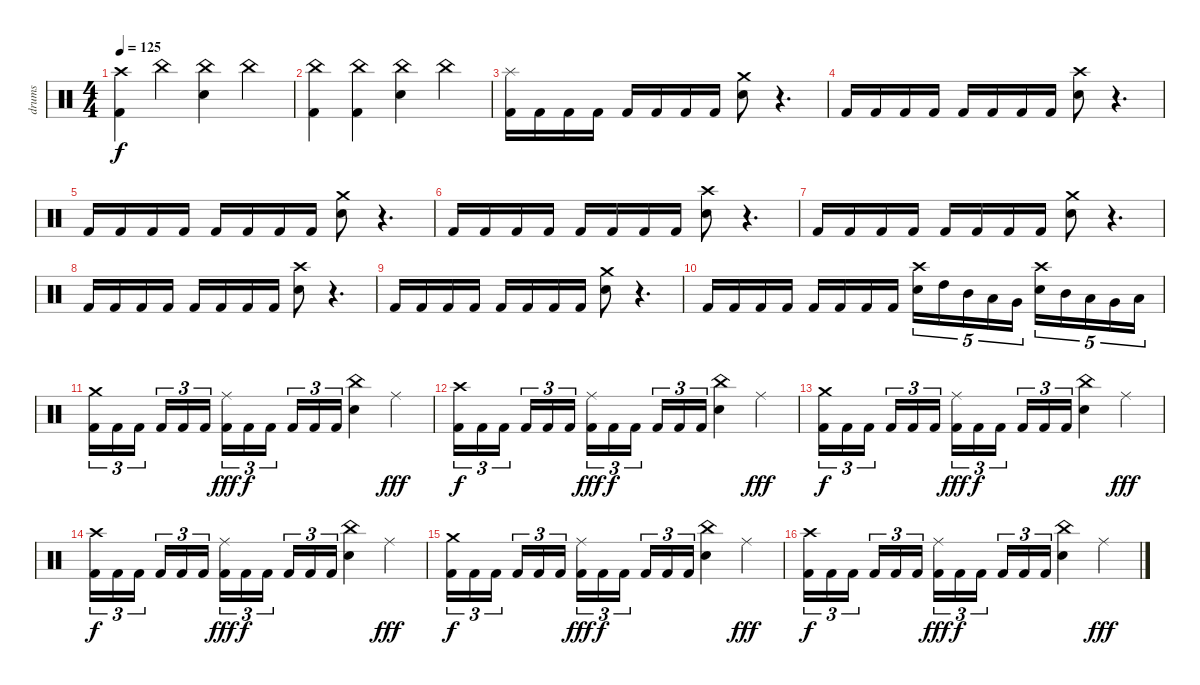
\track ("drums" "drums") {instrument percussion}
\staff {score}
\articulation defaults
\ts (4 4)
\tempo 125
\clef neutral
\ks c
("Kick (hit) 2" "Crash high (hit)").4{dy f} "China (hit)".4 ("Snare (hit) 2" "China (hit)").4 "China (hit)".4 |
("Kick (hit) 2" "China (hit)").4 ("Kick (hit) 2" "China (hit)").4 ("Snare (hit) 2" "China (hit)").4 "China (hit)".4 |
("Splash (hit)" "Kick (hit) 2").16 "Kick (hit) 2".16 "Kick (hit) 2".16 "Kick (hit) 2".16 "Kick (hit) 2".16 "Kick (hit) 2".16 "Kick (hit) 2".16 "Kick (hit) 2".16 ("Crash medium (hit)" "Snare (hit) 2").8 r.4{d} |
"Kick (hit) 2".16 "Kick (hit) 2".16 "Kick (hit) 2".16 "Kick (hit) 2".16 "Kick (hit) 2".16 "Kick (hit) 2".16 "Kick (hit) 2".16 "Kick (hit) 2".16 ("Crash high (hit)" "Snare (hit) 2").8 r.4{d} |
"Kick (hit) 2".16 "Kick (hit) 2".16 "Kick (hit) 2".16 "Kick (hit) 2".16 "Kick (hit) 2".16 "Kick (hit) 2".16 "Kick (hit) 2".16 "Kick (hit) 2".16 ("Crash medium (hit)" "Snare (hit) 2").8 r.4{d} |
"Kick (hit) 2".16 "Kick (hit) 2".16 "Kick (hit) 2".16 "Kick (hit) 2".16 "Kick (hit) 2".16 "Kick (hit) 2".16 "Kick (hit) 2".16 "Kick (hit) 2".16 ("Crash high (hit)" "Snare (hit) 2").8 r.4{d} |
"Kick (hit) 2".16 "Kick (hit) 2".16 "Kick (hit) 2".16 "Kick (hit) 2".16 "Kick (hit) 2".16 "Kick (hit) 2".16 "Kick (hit) 2".16 "Kick (hit) 2".16 ("Crash medium (hit)" "Snare (hit) 2").8 r.4{d} |
"Kick (hit) 2".16 "Kick (hit) 2".16 "Kick (hit) 2".16 "Kick (hit) 2".16 "Kick (hit) 2".16 "Kick (hit) 2".16 "Kick (hit) 2".16 "Kick (hit) 2".16 ("Crash high (hit)" "Snare (hit) 2").8 r.4{d} |
"Kick (hit) 2".16 "Kick (hit) 2".16 "Kick (hit) 2".16 "Kick (hit) 2".16 "Kick (hit) 2".16 "Kick (hit) 2".16 "Kick (hit) 2".16 "Kick (hit) 2".16 ("Crash medium (hit)" "Snare (hit) 2").8 r.4{d} |
"Kick (hit) 2".16 "Kick (hit) 2".16 "Kick (hit) 2".16 "Kick (hit) 2".16 "Kick (hit) 2".16 "Kick (hit) 2".16 "Kick (hit) 2".16 "Kick (hit) 2".16 ("Crash high (hit)" "Snare (hit) 2").16{tu (5 4)} "High Tom (hit)".16{tu (5 4)} "Mid Tom (hit)".16{tu (5 4)} "Low Tom (hit)".16{tu (5 4)} "Very Low Tom (hit)".16{tu (5 4)} ("Crash high (hit)" "Snare (hit) 2").16{tu (5 4)} "Mid Tom (hit)".16{tu (5 4)} "Low Tom (hit)".16{tu (5 4)} "Very Low Tom (hit)".16{tu (5 4)} "Low Floor Tom (hit)".16{tu (5 4)} |
("Kick (hit) 2" "Crash medium (hit)").16{tu (3 2)} "Kick (hit) 2".16{tu (3 2)} "Kick (hit) 2".16{tu (3 2)} "Kick (hit) 2".16{tu (3 2)} "Kick (hit) 2".16{tu (3 2)} "Kick (hit) 2".16{tu (3 2)} ("Kick (hit) 2" "Ride (middle)").16{tu (3 2) dy fff} "Kick (hit) 2".16{tu (3 2) dy f} "Kick (hit) 2".16{tu (3 2)} "Kick (hit) 2".16{tu (3 2)} "Kick (hit) 2".16{tu (3 2)} "Kick (hit) 2".16{tu (3 2)} ("Snare (hit) 2" "China (hit)").4 "Ride (middle)".4{dy fff} |
("Kick (hit) 2" "Crash high (hit)").16{tu (3 2) dy f} "Kick (hit) 2".16{tu (3 2)} "Kick (hit) 2".16{tu (3 2)} "Kick (hit) 2".16{tu (3 2)} "Kick (hit) 2".16{tu (3 2)} "Kick (hit) 2".16{tu (3 2)} ("Kick (hit) 2" "Ride (middle)").16{tu (3 2) dy fff} "Kick (hit) 2".16{tu (3 2) dy f} "Kick (hit) 2".16{tu (3 2)} "Kick (hit) 2".16{tu (3 2)} "Kick (hit) 2".16{tu (3 2)} "Kick (hit) 2".16{tu (3 2)} ("Snare (hit) 2" "China (hit)").4 "Ride (middle)".4{dy fff} |
("Kick (hit) 2" "Crash medium (hit)").16{tu (3 2) dy f} "Kick (hit) 2".16{tu (3 2)} "Kick (hit) 2".16{tu (3 2)} "Kick (hit) 2".16{tu (3 2)} "Kick (hit) 2".16{tu (3 2)} "Kick (hit) 2".16{tu (3 2)} ("Kick (hit) 2" "Ride (middle)").16{tu (3 2) dy fff} "Kick (hit) 2".16{tu (3 2) dy f} "Kick (hit) 2".16{tu (3 2)} "Kick (hit) 2".16{tu (3 2)} "Kick (hit) 2".16{tu (3 2)} "Kick (hit) 2".16{tu (3 2)} ("Snare (hit) 2" "China (hit)").4 "Ride (middle)".4{dy fff} |
("Kick (hit) 2" "Crash high (hit)").16{tu (3 2) dy f} "Kick (hit) 2".16{tu (3 2)} "Kick (hit) 2".16{tu (3 2)} "Kick (hit) 2".16{tu (3 2)} "Kick (hit) 2".16{tu (3 2)} "Kick (hit) 2".16{tu (3 2)} ("Kick (hit) 2" "Ride (middle)").16{tu (3 2) dy fff} "Kick (hit) 2".16{tu (3 2) dy f} "Kick (hit) 2".16{tu (3 2)} "Kick (hit) 2".16{tu (3 2)} "Kick (hit) 2".16{tu (3 2)} "Kick (hit) 2".16{tu (3 2)} ("Snare (hit) 2" "China (hit)").4 "Ride (middle)".4{dy fff} |
("Kick (hit) 2" "Crash medium (hit)").16{tu (3 2) dy f} "Kick (hit) 2".16{tu (3 2)} "Kick (hit) 2".16{tu (3 2)} "Kick (hit) 2".16{tu (3 2)} "Kick (hit) 2".16{tu (3 2)} "Kick (hit) 2".16{tu (3 2)} ("Kick (hit) 2" "Ride (middle)").16{tu (3 2) dy fff} "Kick (hit) 2".16{tu (3 2) dy f} "Kick (hit) 2".16{tu (3 2)} "Kick (hit) 2".16{tu (3 2)} "Kick (hit) 2".16{tu (3 2)} "Kick (hit) 2".16{tu (3 2)} ("Snare (hit) 2" "China (hit)").4 "Ride (middle)".4{dy fff} |
("Kick (hit) 2" "Crash high (hit)").16{tu (3 2) dy f} "Kick (hit) 2".16{tu (3 2)} "Kick (hit) 2".16{tu (3 2)} "Kick (hit) 2".16{tu (3 2)} "Kick (hit) 2".16{tu (3 2)} "Kick (hit) 2".16{tu (3 2)} ("Kick (hit) 2" "Ride (middle)").16{tu (3 2) dy fff} "Kick (hit) 2".16{tu (3 2) dy f} "Kick (hit) 2".16{tu (3 2)} "Kick (hit) 2".16{tu (3 2)} "Kick (hit) 2".16{tu (3 2)} "Kick (hit) 2".16{tu (3 2)} ("Snare (hit) 2" "China (hit)").4 "Ride (middle)".4{dy fff}
